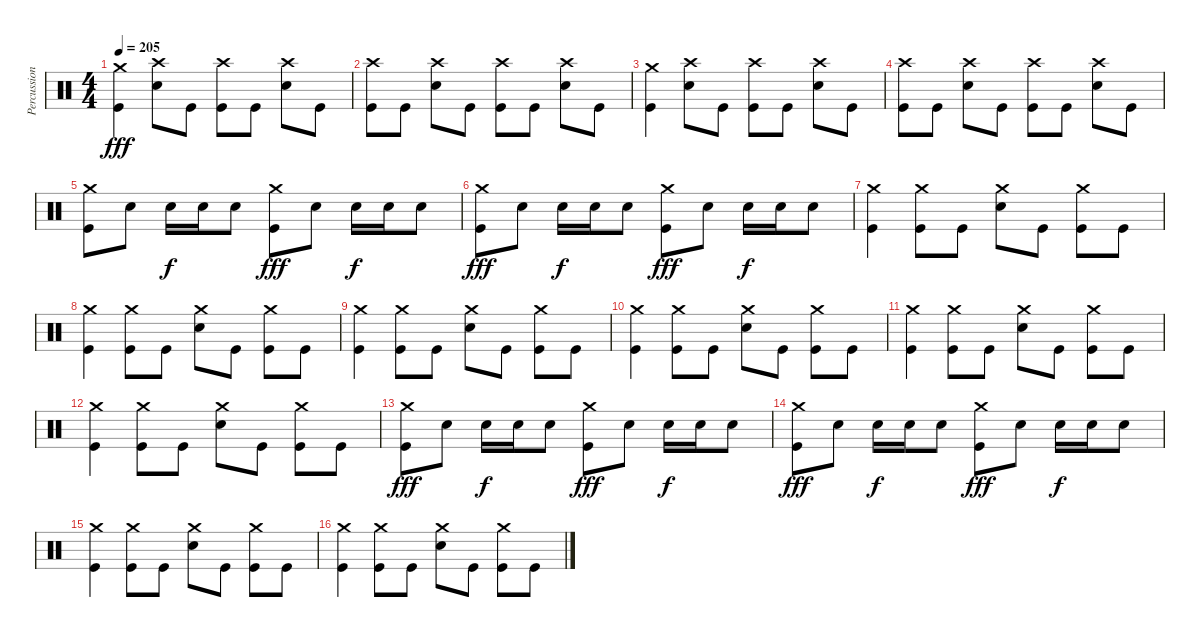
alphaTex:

\track ("Percussion" "Percussion") {instrument percussion}
\staff {score}
\articulation defaults
\ts (4 4)
\tempo 205
\clef neutral
\ks c
("Crash medium (hit)" "Kick (hit)").4{dy fff} ("Crash high (hit)" "Electric Snare (hit)").8 "Kick (hit)".8 ("Crash high (hit)" "Kick (hit)").8 "Kick (hit)".8 ("Crash high (hit)" "Electric Snare (hit)").8 "Kick (hit)".8 |
("Crash high (hit)" "Kick (hit)").8 "Kick (hit)".8 ("Crash high (hit)" "Electric Snare (hit)").8 "Kick (hit)".8 ("Crash high (hit)" "Kick (hit)").8 "Kick (hit)".8 ("Crash high (hit)" "Electric Snare (hit)").8 "Kick (hit)".8 |
("Crash medium (hit)" "Kick (hit)").4 ("Crash high (hit)" "Electric Snare (hit)").8 "Kick (hit)".8 ("Crash high (hit)" "Kick (hit)").8 "Kick (hit)".8 ("Crash high (hit)" "Electric Snare (hit)").8 "Kick (hit)".8 |
("Crash high (hit)" "Kick (hit)").8 "Kick (hit)".8 ("Crash high (hit)" "Electric Snare (hit)").8 "Kick (hit)".8 ("Crash high (hit)" "Kick (hit)").8 "Kick (hit)".8 ("Crash high (hit)" "Electric Snare (hit)").8 "Kick (hit)".8 |
("Crash medium (hit)" "Kick (hit)").8 "Electric Snare (hit)".8 "Electric Snare (hit)".16{dy f} "Electric Snare (hit)".16 "Electric Snare (hit)".8 ("Crash medium (hit)" "Kick (hit)").8{dy fff} "Electric Snare (hit)".8 "Electric Snare (hit)".16{dy f} "Electric Snare (hit)".16 "Electric Snare (hit)".8 |
("Crash medium (hit)" "Kick (hit)").8{dy fff} "Electric Snare (hit)".8 "Electric Snare (hit)".16{dy f} "Electric Snare (hit)".16 "Electric Snare (hit)".8 ("Crash medium (hit)" "Kick (hit)").8{dy fff} "Electric Snare (hit)".8 "Electric Snare (hit)".16{dy f} "Electric Snare (hit)".16 "Electric Snare (hit)".8 |
("Crash medium (hit)" "Kick (hit)").4 ("Crash medium (hit)" "Kick (hit)").8 "Kick (hit)".8 ("Crash medium (hit)" "Electric Snare (hit)").8 "Kick (hit)".8 ("Crash medium (hit)" "Kick (hit)").8 "Kick (hit)".8 |
("Crash medium (hit)" "Kick (hit)").4 ("Crash medium (hit)" "Kick (hit)").8 "Kick (hit)".8 ("Crash medium (hit)" "Electric Snare (hit)").8 "Kick (hit)".8 ("Crash medium (hit)" "Kick (hit)").8 "Kick (hit)".8 |
("Crash medium (hit)" "Kick (hit)").4 ("Crash medium (hit)" "Kick (hit)").8 "Kick (hit)".8 ("Crash medium (hit)" "Electric Snare (hit)").8 "Kick (hit)".8 ("Crash medium (hit)" "Kick (hit)").8 "Kick (hit)".8 |
("Crash medium (hit)" "Kick (hit)").4 ("Crash medium (hit)" "Kick (hit)").8 "Kick (hit)".8 ("Crash medium (hit)" "Electric Snare (hit)").8 "Kick (hit)".8 ("Crash medium (hit)" "Kick (hit)").8 "Kick (hit)".8 |
("Crash medium (hit)" "Kick (hit)").4 ("Crash medium (hit)" "Kick (hit)").8 "Kick (hit)".8 ("Crash medium (hit)" "Electric Snare (hit)").8 "Kick (hit)".8 ("Crash medium (hit)" "Kick (hit)").8 "Kick (hit)".8 |
("Crash medium (hit)" "Kick (hit)").4 ("Crash medium (hit)" "Kick (hit)").8 "Kick (hit)".8 ("Crash medium (hit)" "Electric Snare (hit)").8 "Kick (hit)".8 ("Crash medium (hit)" "Kick (hit)").8 "Kick (hit)".8 |
("Crash medium (hit)" "Kick (hit)").8{dy fff} "Electric Snare (hit)".8 "Electric Snare (hit)".16{dy f} "Electric Snare (hit)".16 "Electric Snare (hit)".8 ("Crash medium (hit)" "Kick (hit)").8{dy fff} "Electric Snare (hit)".8 "Electric Snare (hit)".16{dy f} "Electric Snare (hit)".16 "Electric Snare (hit)".8 |
("Crash medium (hit)" "Kick (hit)").8{dy fff} "Electric Snare (hit)".8 "Electric Snare (hit)".16{dy f} "Electric Snare (hit)".16 "Electric Snare (hit)".8 ("Crash medium (hit)" "Kick (hit)").8{dy fff} "Electric Snare (hit)".8 "Electric Snare (hit)".16{dy f} "Electric Snare (hit)".16 "Electric Snare (hit)".8 |
("Crash medium (hit)" "Kick (hit)").4 ("Crash medium (hit)" "Kick (hit)").8 "Kick (hit)".8 ("Crash medium (hit)" "Electric Snare (hit)").8 "Kick (hit)".8 ("Crash medium (hit)" "Kick (hit)").8 "Kick (hit)".8 |
("Crash medium (hit)" "Kick (hit)").4 ("Crash medium (hit)" "Kick (hit)").8 "Kick (hit)".8 ("Crash medium (hit)" "Electric Snare (hit)").8 "Kick (hit)".8 ("Crash medium (hit)" "Kick (hit)").8 "Kick (hit)".8
